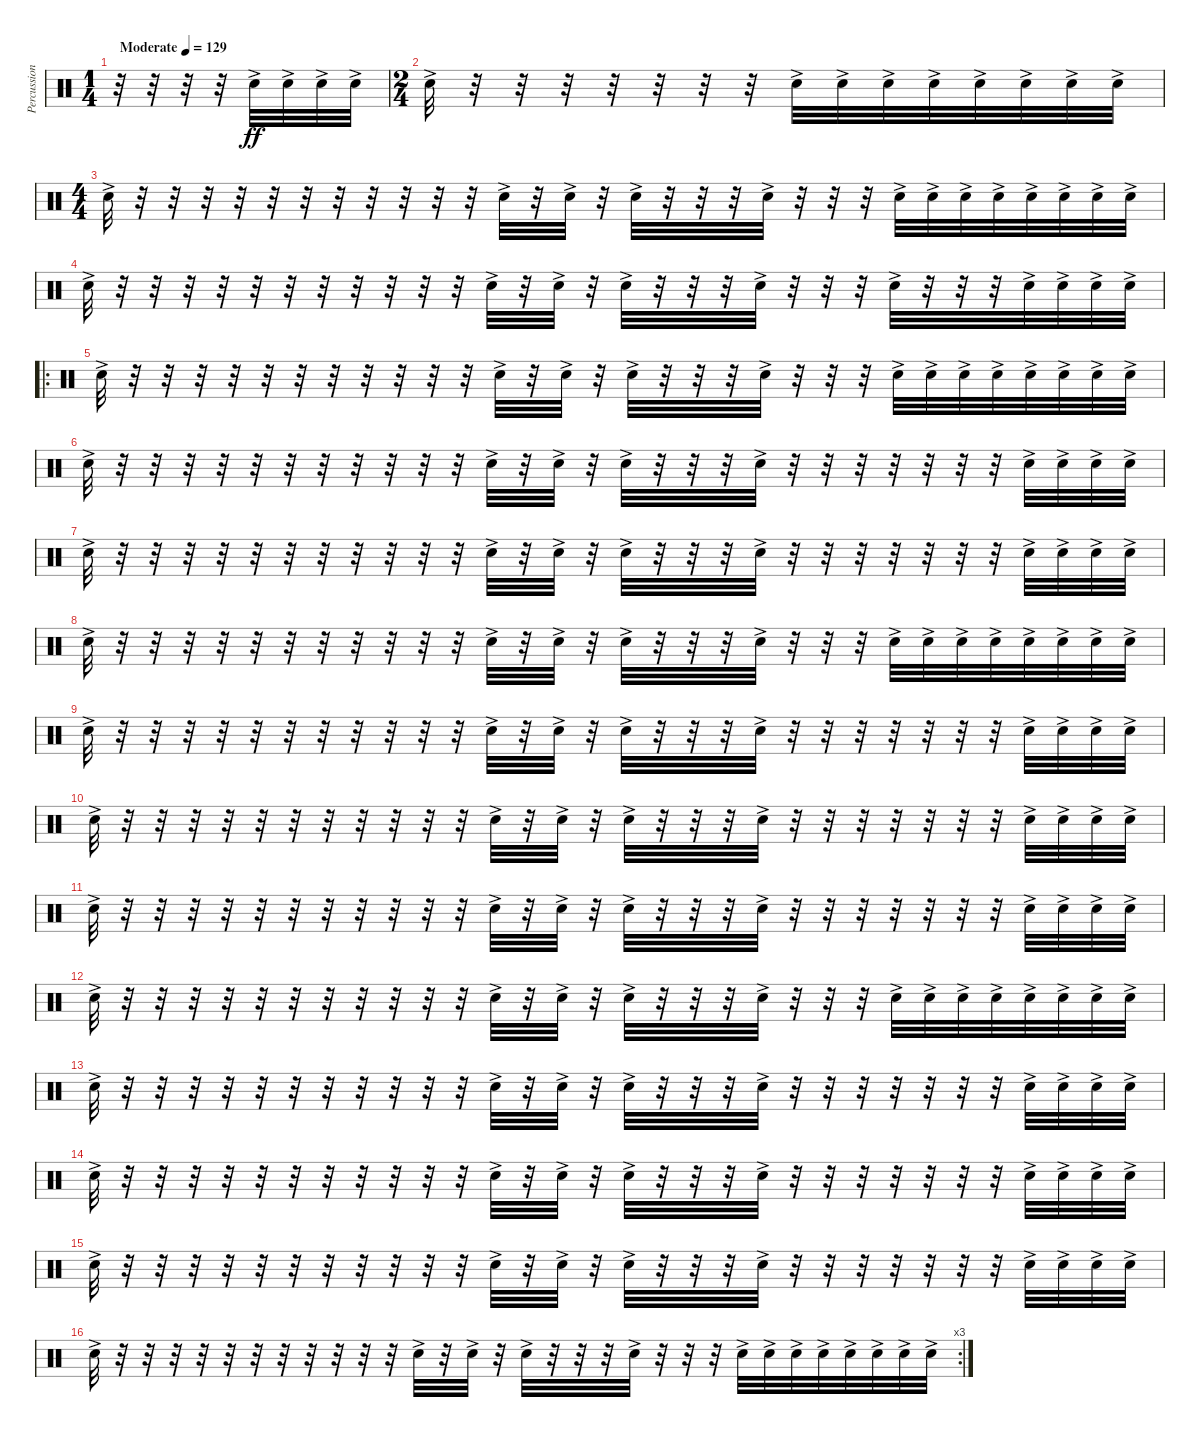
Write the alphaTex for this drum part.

\track ("Percussion" "Percussion") {instrument percussion}
\staff {score}
\articulation defaults
\ts (1 4)
\tempo (129 "Moderate")
\clef neutral
\ks c
r.32{dy ff} r.32 r.32 r.32 "Snare (hit) 2"{ac}.32 "Snare (hit) 2"{ac}.32 "Snare (hit) 2"{ac}.32 "Snare (hit) 2"{ac}.32 |
\ts (2 4)
"Snare (hit) 2"{ac}.32 r.32 r.32 r.32 r.32 r.32 r.32 r.32 "Snare (hit) 2"{ac}.32 "Snare (hit) 2"{ac}.32 "Snare (hit) 2"{ac}.32 "Snare (hit) 2"{ac}.32 "Snare (hit) 2"{ac}.32 "Snare (hit) 2"{ac}.32 "Snare (hit) 2"{ac}.32 "Snare (hit) 2"{ac}.32 |
\ts (4 4)
"Snare (hit) 2"{ac}.32 r.32 r.32 r.32 r.32 r.32 r.32 r.32 r.32 r.32 r.32 r.32 "Snare (hit) 2"{ac}.32 r.32 "Snare (hit) 2"{ac}.32 r.32 "Snare (hit) 2"{ac}.32 r.32 r.32 r.32 "Snare (hit) 2"{ac}.32 r.32 r.32 r.32 "Snare (hit) 2"{ac}.32 "Snare (hit) 2"{ac}.32 "Snare (hit) 2"{ac}.32 "Snare (hit) 2"{ac}.32 "Snare (hit) 2"{ac}.32 "Snare (hit) 2"{ac}.32 "Snare (hit) 2"{ac}.32 "Snare (hit) 2"{ac}.32 |
"Snare (hit) 2"{ac}.32 r.32 r.32 r.32 r.32 r.32 r.32 r.32 r.32 r.32 r.32 r.32 "Snare (hit) 2"{ac}.32 r.32 "Snare (hit) 2"{ac}.32 r.32 "Snare (hit) 2"{ac}.32 r.32 r.32 r.32 "Snare (hit) 2"{ac}.32 r.32 r.32 r.32 "Snare (hit) 2"{ac}.32 r.32 r.32 r.32 "Snare (hit) 2"{ac}.32 "Snare (hit) 2"{ac}.32 "Snare (hit) 2"{ac}.32 "Snare (hit) 2"{ac}.32 |
\ro "Snare (hit) 2"{ac}.32
r.32 r.32 r.32 r.32 r.32 r.32 r.32 r.32 r.32 r.32 r.32 "Snare (hit) 2"{ac}.32 r.32 "Snare (hit) 2"{ac}.32 r.32 "Snare (hit) 2"{ac}.32 r.32 r.32 r.32 "Snare (hit) 2"{ac}.32 r.32 r.32 r.32 "Snare (hit) 2"{ac}.32 "Snare (hit) 2"{ac}.32 "Snare (hit) 2"{ac}.32 "Snare (hit) 2"{ac}.32 "Snare (hit) 2"{ac}.32 "Snare (hit) 2"{ac}.32 "Snare (hit) 2"{ac}.32 "Snare (hit) 2"{ac}.32 |
"Snare (hit) 2"{ac}.32 r.32 r.32 r.32 r.32 r.32 r.32 r.32 r.32 r.32 r.32 r.32 "Snare (hit) 2"{ac}.32 r.32 "Snare (hit) 2"{ac}.32 r.32 "Snare (hit) 2"{ac}.32 r.32 r.32 r.32 "Snare (hit) 2"{ac}.32 r.32 r.32 r.32 r.32 r.32 r.32 r.32 "Snare (hit) 2"{ac}.32 "Snare (hit) 2"{ac}.32 "Snare (hit) 2"{ac}.32 "Snare (hit) 2"{ac}.32 |
"Snare (hit) 2"{ac}.32 r.32 r.32 r.32 r.32 r.32 r.32 r.32 r.32 r.32 r.32 r.32 "Snare (hit) 2"{ac}.32 r.32 "Snare (hit) 2"{ac}.32 r.32 "Snare (hit) 2"{ac}.32 r.32 r.32 r.32 "Snare (hit) 2"{ac}.32 r.32 r.32 r.32 r.32 r.32 r.32 r.32 "Snare (hit) 2"{ac}.32 "Snare (hit) 2"{ac}.32 "Snare (hit) 2"{ac}.32 "Snare (hit) 2"{ac}.32 |
"Snare (hit) 2"{ac}.32 r.32 r.32 r.32 r.32 r.32 r.32 r.32 r.32 r.32 r.32 r.32 "Snare (hit) 2"{ac}.32 r.32 "Snare (hit) 2"{ac}.32 r.32 "Snare (hit) 2"{ac}.32 r.32 r.32 r.32 "Snare (hit) 2"{ac}.32 r.32 r.32 r.32 "Snare (hit) 2"{ac}.32 "Snare (hit) 2"{ac}.32 "Snare (hit) 2"{ac}.32 "Snare (hit) 2"{ac}.32 "Snare (hit) 2"{ac}.32 "Snare (hit) 2"{ac}.32 "Snare (hit) 2"{ac}.32 "Snare (hit) 2"{ac}.32 |
"Snare (hit) 2"{ac}.32 r.32 r.32 r.32 r.32 r.32 r.32 r.32 r.32 r.32 r.32 r.32 "Snare (hit) 2"{ac}.32 r.32 "Snare (hit) 2"{ac}.32 r.32 "Snare (hit) 2"{ac}.32 r.32 r.32 r.32 "Snare (hit) 2"{ac}.32 r.32 r.32 r.32 r.32 r.32 r.32 r.32 "Snare (hit) 2"{ac}.32 "Snare (hit) 2"{ac}.32 "Snare (hit) 2"{ac}.32 "Snare (hit) 2"{ac}.32 |
"Snare (hit) 2"{ac}.32 r.32 r.32 r.32 r.32 r.32 r.32 r.32 r.32 r.32 r.32 r.32 "Snare (hit) 2"{ac}.32 r.32 "Snare (hit) 2"{ac}.32 r.32 "Snare (hit) 2"{ac}.32 r.32 r.32 r.32 "Snare (hit) 2"{ac}.32 r.32 r.32 r.32 r.32 r.32 r.32 r.32 "Snare (hit) 2"{ac}.32 "Snare (hit) 2"{ac}.32 "Snare (hit) 2"{ac}.32 "Snare (hit) 2"{ac}.32 |
"Snare (hit) 2"{ac}.32 r.32 r.32 r.32 r.32 r.32 r.32 r.32 r.32 r.32 r.32 r.32 "Snare (hit) 2"{ac}.32 r.32 "Snare (hit) 2"{ac}.32 r.32 "Snare (hit) 2"{ac}.32 r.32 r.32 r.32 "Snare (hit) 2"{ac}.32 r.32 r.32 r.32 r.32 r.32 r.32 r.32 "Snare (hit) 2"{ac}.32 "Snare (hit) 2"{ac}.32 "Snare (hit) 2"{ac}.32 "Snare (hit) 2"{ac}.32 |
"Snare (hit) 2"{ac}.32 r.32 r.32 r.32 r.32 r.32 r.32 r.32 r.32 r.32 r.32 r.32 "Snare (hit) 2"{ac}.32 r.32 "Snare (hit) 2"{ac}.32 r.32 "Snare (hit) 2"{ac}.32 r.32 r.32 r.32 "Snare (hit) 2"{ac}.32 r.32 r.32 r.32 "Snare (hit) 2"{ac}.32 "Snare (hit) 2"{ac}.32 "Snare (hit) 2"{ac}.32 "Snare (hit) 2"{ac}.32 "Snare (hit) 2"{ac}.32 "Snare (hit) 2"{ac}.32 "Snare (hit) 2"{ac}.32 "Snare (hit) 2"{ac}.32 |
"Snare (hit) 2"{ac}.32 r.32 r.32 r.32 r.32 r.32 r.32 r.32 r.32 r.32 r.32 r.32 "Snare (hit) 2"{ac}.32 r.32 "Snare (hit) 2"{ac}.32 r.32 "Snare (hit) 2"{ac}.32 r.32 r.32 r.32 "Snare (hit) 2"{ac}.32 r.32 r.32 r.32 r.32 r.32 r.32 r.32 "Snare (hit) 2"{ac}.32 "Snare (hit) 2"{ac}.32 "Snare (hit) 2"{ac}.32 "Snare (hit) 2"{ac}.32 |
"Snare (hit) 2"{ac}.32 r.32 r.32 r.32 r.32 r.32 r.32 r.32 r.32 r.32 r.32 r.32 "Snare (hit) 2"{ac}.32 r.32 "Snare (hit) 2"{ac}.32 r.32 "Snare (hit) 2"{ac}.32 r.32 r.32 r.32 "Snare (hit) 2"{ac}.32 r.32 r.32 r.32 r.32 r.32 r.32 r.32 "Snare (hit) 2"{ac}.32 "Snare (hit) 2"{ac}.32 "Snare (hit) 2"{ac}.32 "Snare (hit) 2"{ac}.32 |
"Snare (hit) 2"{ac}.32 r.32 r.32 r.32 r.32 r.32 r.32 r.32 r.32 r.32 r.32 r.32 "Snare (hit) 2"{ac}.32 r.32 "Snare (hit) 2"{ac}.32 r.32 "Snare (hit) 2"{ac}.32 r.32 r.32 r.32 "Snare (hit) 2"{ac}.32 r.32 r.32 r.32 r.32 r.32 r.32 r.32 "Snare (hit) 2"{ac}.32 "Snare (hit) 2"{ac}.32 "Snare (hit) 2"{ac}.32 "Snare (hit) 2"{ac}.32 |
\rc 3 "Snare (hit) 2"{ac}.32
r.32 r.32 r.32 r.32 r.32 r.32 r.32 r.32 r.32 r.32 r.32 "Snare (hit) 2"{ac}.32 r.32 "Snare (hit) 2"{ac}.32 r.32 "Snare (hit) 2"{ac}.32 r.32 r.32 r.32 "Snare (hit) 2"{ac}.32 r.32 r.32 r.32 "Snare (hit) 2"{ac}.32 "Snare (hit) 2"{ac}.32 "Snare (hit) 2"{ac}.32 "Snare (hit) 2"{ac}.32 "Snare (hit) 2"{ac}.32 "Snare (hit) 2"{ac}.32 "Snare (hit) 2"{ac}.32 "Snare (hit) 2"{ac}.32
